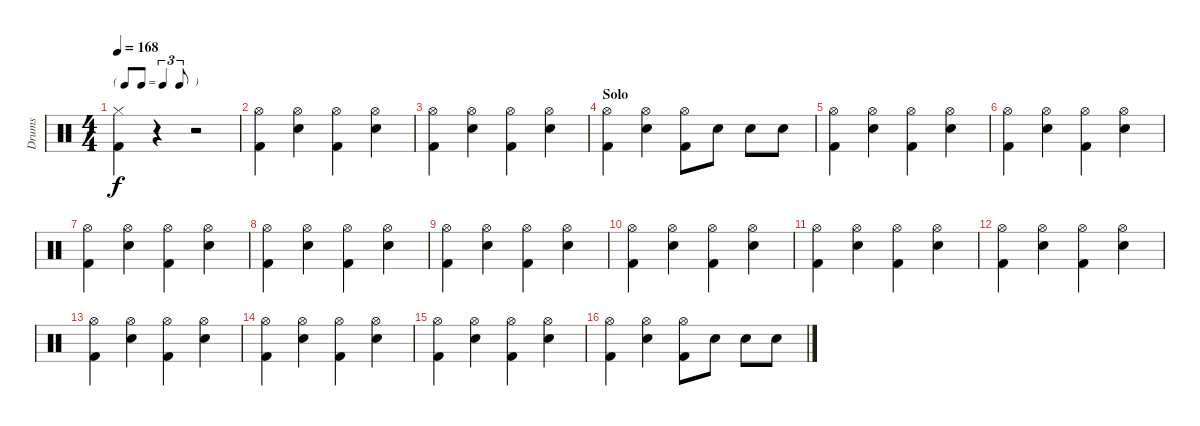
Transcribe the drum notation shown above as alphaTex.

\track ("Drums" "Drums") {instrument percussion}
\staff {score}
\articulation defaults
\ts (4 4)
\tf triplet8th
\tempo 168
\clef neutral
\ks c
("Hi-Hat (closed)" "Kick (hit) 2").4{dy f} r.4 r.2 |
("Hi-Hat (open)" "Kick (hit) 2").4 ("Hi-Hat (open)" "Snare (hit) 2").4 ("Hi-Hat (open)" "Kick (hit) 2").4 ("Hi-Hat (open)" "Snare (hit) 2").4 |
("Hi-Hat (open)" "Kick (hit) 2").4 ("Hi-Hat (open)" "Snare (hit) 2").4 ("Hi-Hat (open)" "Kick (hit) 2").4 ("Hi-Hat (open)" "Snare (hit) 2").4 |
\section ("" "Solo")
("Hi-Hat (open)" "Kick (hit) 2").4 ("Hi-Hat (open)" "Snare (hit) 2").4 ("Hi-Hat (open)" "Kick (hit) 2").8 "Snare (hit) 2".8 "Snare (hit) 2".8 "Snare (hit) 2".8 |
("Hi-Hat (open)" "Kick (hit) 2").4 ("Hi-Hat (open)" "Snare (hit) 2").4 ("Hi-Hat (open)" "Kick (hit) 2").4 ("Hi-Hat (open)" "Snare (hit) 2").4 |
("Hi-Hat (open)" "Kick (hit) 2").4 ("Hi-Hat (open)" "Snare (hit) 2").4 ("Hi-Hat (open)" "Kick (hit) 2").4 ("Hi-Hat (open)" "Snare (hit) 2").4 |
("Hi-Hat (open)" "Kick (hit) 2").4 ("Hi-Hat (open)" "Snare (hit) 2").4 ("Hi-Hat (open)" "Kick (hit) 2").4 ("Hi-Hat (open)" "Snare (hit) 2").4 |
("Hi-Hat (open)" "Kick (hit) 2").4 ("Hi-Hat (open)" "Snare (hit) 2").4 ("Hi-Hat (open)" "Kick (hit) 2").4 ("Hi-Hat (open)" "Snare (hit) 2").4 |
("Hi-Hat (open)" "Kick (hit) 2").4 ("Hi-Hat (open)" "Snare (hit) 2").4 ("Hi-Hat (open)" "Kick (hit) 2").4 ("Hi-Hat (open)" "Snare (hit) 2").4 |
("Hi-Hat (open)" "Kick (hit) 2").4 ("Hi-Hat (open)" "Snare (hit) 2").4 ("Hi-Hat (open)" "Kick (hit) 2").4 ("Hi-Hat (open)" "Snare (hit) 2").4 |
("Hi-Hat (open)" "Kick (hit) 2").4 ("Hi-Hat (open)" "Snare (hit) 2").4 ("Hi-Hat (open)" "Kick (hit) 2").4 ("Hi-Hat (open)" "Snare (hit) 2").4 |
("Hi-Hat (open)" "Kick (hit) 2").4 ("Hi-Hat (open)" "Snare (hit) 2").4 ("Hi-Hat (open)" "Kick (hit) 2").4 ("Hi-Hat (open)" "Snare (hit) 2").4 |
("Hi-Hat (open)" "Kick (hit) 2").4 ("Hi-Hat (open)" "Snare (hit) 2").4 ("Hi-Hat (open)" "Kick (hit) 2").4 ("Hi-Hat (open)" "Snare (hit) 2").4 |
("Hi-Hat (open)" "Kick (hit) 2").4 ("Hi-Hat (open)" "Snare (hit) 2").4 ("Hi-Hat (open)" "Kick (hit) 2").4 ("Hi-Hat (open)" "Snare (hit) 2").4 |
("Hi-Hat (open)" "Kick (hit) 2").4 ("Hi-Hat (open)" "Snare (hit) 2").4 ("Hi-Hat (open)" "Kick (hit) 2").4 ("Hi-Hat (open)" "Snare (hit) 2").4 |
("Hi-Hat (open)" "Kick (hit) 2").4 ("Hi-Hat (open)" "Snare (hit) 2").4 ("Hi-Hat (open)" "Kick (hit) 2").8 "Snare (hit) 2".8 "Snare (hit) 2".8 "Snare (hit) 2".8
